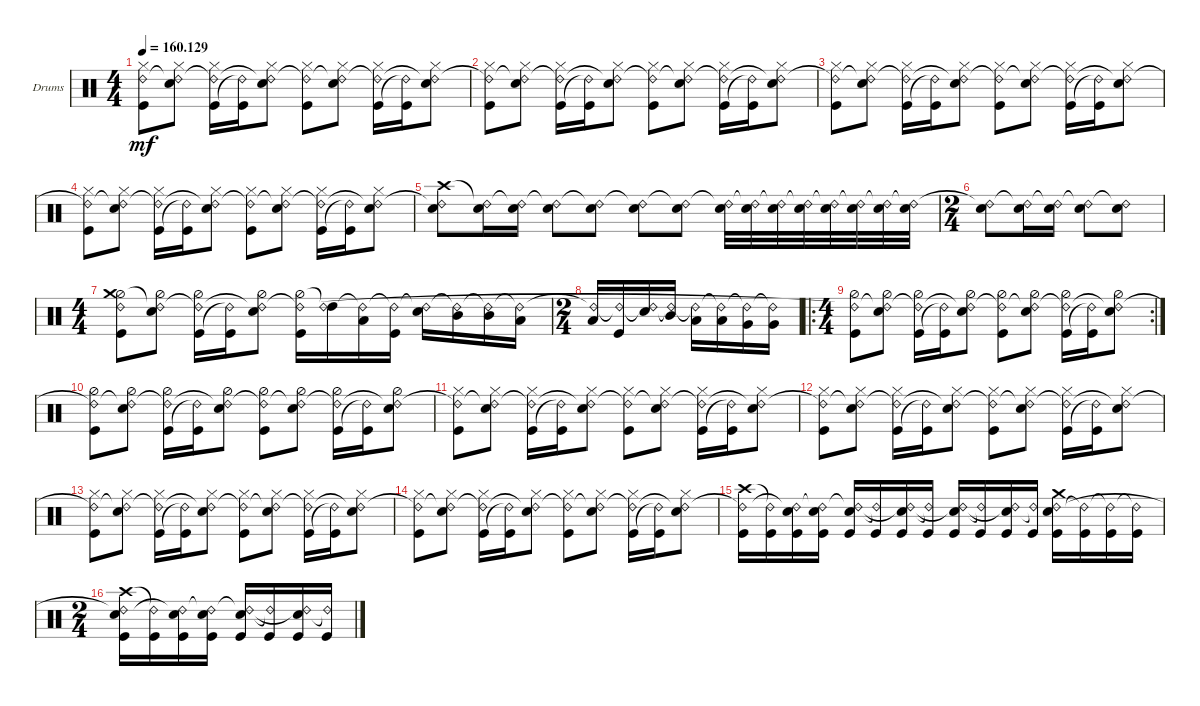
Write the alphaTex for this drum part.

\defaultSystemsLayout 4
\bracketExtendMode groupsimilarinstruments
\firstSystemTrackNameOrientation horizontal
\otherSystemsTrackNameOrientation horizontal
\track ("Drumkit" "Drums") {instrument percussion}
\staff {score}
\articulation defaults
\ts (4 4)
\tempo
160.129
\accidentals auto
\clef neutral
\ottava regular
\simile none
\ks c
("Kick (hit)" "Hi-Hat (closed)" "Ride (bell) 2"{t}).8{dy mf} ("Hi-Hat (closed)" "Snare (hit) 2" "Ride (bell) 2"{t}).8 ("Hi-Hat (closed)" "Kick (hit)" "Ride (bell) 2"{t}).16 ("Kick (hit)" "Ride (bell) 2"{t}).16 ("Hi-Hat (closed)" "Snare (hit) 2" "Ride (bell) 2"{t}).8 ("Kick (hit)" "Hi-Hat (closed)" "Ride (bell) 2"{t}).8 ("Hi-Hat (closed)" "Snare (hit) 2" "Ride (bell) 2"{t}).8 ("Hi-Hat (closed)" "Kick (hit)" "Ride (bell) 2"{t}).16 ("Kick (hit)" "Ride (bell) 2"{t}).16 ("Hi-Hat (closed)" "Snare (hit) 2" "Ride (bell) 2"{t}).8 |
("Kick (hit)" "Hi-Hat (closed)" "Ride (bell) 2"{t}).8 ("Hi-Hat (closed)" "Snare (hit) 2" "Ride (bell) 2"{t}).8 ("Hi-Hat (closed)" "Kick (hit)" "Ride (bell) 2"{t}).16 ("Kick (hit)" "Ride (bell) 2"{t}).16 ("Hi-Hat (closed)" "Snare (hit) 2" "Ride (bell) 2"{t}).8 ("Kick (hit)" "Hi-Hat (closed)" "Ride (bell) 2"{t}).8 ("Hi-Hat (closed)" "Snare (hit) 2" "Ride (bell) 2"{t}).8 ("Hi-Hat (closed)" "Kick (hit)" "Ride (bell) 2"{t}).16 ("Kick (hit)" "Ride (bell) 2"{t}).16 ("Hi-Hat (closed)" "Snare (hit) 2" "Ride (bell) 2"{t}).8 |
("Kick (hit)" "Hi-Hat (closed)" "Ride (bell) 2"{t}).8 ("Hi-Hat (closed)" "Snare (hit) 2" "Ride (bell) 2"{t}).8 ("Hi-Hat (closed)" "Kick (hit)" "Ride (bell) 2"{t}).16 ("Kick (hit)" "Ride (bell) 2"{t}).16 ("Hi-Hat (closed)" "Snare (hit) 2" "Ride (bell) 2"{t}).8 ("Kick (hit)" "Hi-Hat (closed)" "Ride (bell) 2"{t}).8 ("Hi-Hat (closed)" "Snare (hit) 2" "Ride (bell) 2"{t}).8 ("Hi-Hat (closed)" "Kick (hit)" "Ride (bell) 2"{t}).16 ("Kick (hit)" "Ride (bell) 2"{t}).16 ("Hi-Hat (closed)" "Snare (hit) 2" "Ride (bell) 2"{t}).8 |
("Kick (hit)" "Hi-Hat (closed)" "Ride (bell) 2"{t}).8 ("Hi-Hat (closed)" "Snare (hit) 2" "Ride (bell) 2"{t}).8 ("Hi-Hat (closed)" "Kick (hit)" "Ride (bell) 2"{t}).16 ("Kick (hit)" "Ride (bell) 2"{t}).16 ("Hi-Hat (closed)" "Snare (hit) 2" "Ride (bell) 2"{t}).8 ("Kick (hit)" "Hi-Hat (closed)" "Ride (bell) 2"{t}).8 ("Hi-Hat (closed)" "Snare (hit) 2" "Ride (bell) 2"{t}).8 ("Hi-Hat (closed)" "Kick (hit)" "Ride (bell) 2"{t}).16 ("Kick (hit)" "Ride (bell) 2"{t}).16 ("Hi-Hat (closed)" "Snare (hit) 2" "Ride (bell) 2"{t}).8 |
("Snare (hit) 2" "Crash high (hit)" "Ride (bell) 2"{t}).8 ("Snare (hit) 2" "Ride (bell) 2"{t}).16 ("Snare (hit) 2" "Ride (bell) 2"{t}).16 ("Snare (hit) 2" "Ride (bell) 2"{t}).8 ("Snare (hit) 2" "Ride (bell) 2"{t}).8 ("Snare (hit) 2" "Ride (bell) 2"{t}).8 ("Snare (hit) 2" "Ride (bell) 2"{t}).8 ("Snare (hit) 2" "Ride (bell) 2"{t}).32 ("Snare (hit) 2" "Ride (bell) 2"{t}).32 ("Snare (hit) 2" "Ride (bell) 2"{t}).32 ("Snare (hit) 2" "Ride (bell) 2"{t}).32 ("Snare (hit) 2" "Ride (bell) 2"{t}).32 ("Snare (hit) 2" "Ride (bell) 2"{t}).32 ("Snare (hit) 2" "Ride (bell) 2"{t}).32 ("Snare (hit) 2" "Ride (bell) 2"{t}).32 |
\ts (2 4)
("Snare (hit) 2" "Ride (bell) 2"{t}).8 ("Snare (hit) 2" "Ride (bell) 2"{t}).16 ("Snare (hit) 2" "Ride (bell) 2"{t}).16 ("Snare (hit) 2" "Ride (bell) 2"{t}).8 ("Snare (hit) 2" "Ride (bell) 2"{t}).8 |
\ts (4 4)
("Kick (hit)" "Hi-Hat (half)" "Crash medium (hit)" "Ride (bell) 2").8 ("Hi-Hat (half)" "Snare (hit) 2" "Ride (bell) 2"{t}).8 ("Hi-Hat (half)" "Kick (hit)" "Ride (bell) 2"{t}).16 ("Kick (hit)" "Ride (bell) 2"{t}).16 ("Hi-Hat (half)" "Snare (hit) 2" "Ride (bell) 2"{t}).8 ("Kick (hit)" "Hi-Hat (half)" "Ride (bell) 2"{t}).16 ("High Tom (hit)" "Ride (bell) 2"{t}).16 ("Low Tom (hit)" "Ride (bell) 2"{t}).16 ("Kick (hit)" "Ride (bell) 2"{t}).16 ("Snare (hit) 2" "Ride (bell) 2"{t}).16 ("Mid Tom (hit)" "Ride (bell) 2"{t}).16 ("Mid Tom (hit)" "Ride (bell) 2"{t}).16 ("Low Tom (hit)" "Ride (bell) 2"{t}).16 |
\ts (2 4)
("Low Tom (hit)" "Ride (bell) 2"{t}).16 ("Kick (hit)" "Ride (bell) 2"{t}).16 ("Snare (hit) 2" "Ride (bell) 2"{t}).16 ("Mid Tom (hit)" "Ride (bell) 2"{t}).16 ("Low Tom (hit)" "Ride (bell) 2"{t}).16 ("Low Tom (hit)" "Ride (bell) 2"{t}).16 ("Very Low Tom (hit)" "Ride (bell) 2"{t}).16 ("Very Low Tom (hit)" "Ride (bell) 2"{t}).16 |
\ro
\rc 2
\ts (4 4)
("Kick (hit)" "Hi-Hat (half)" "Ride (bell) 2"{t}).8 ("Hi-Hat (half)" "Snare (hit) 2" "Ride (bell) 2"{t}).8 ("Hi-Hat (half)" "Kick (hit)" "Ride (bell) 2"{t}).16 ("Kick (hit)" "Ride (bell) 2"{t}).16 ("Hi-Hat (half)" "Snare (hit) 2" "Ride (bell) 2"{t}).8 ("Kick (hit)" "Hi-Hat (half)" "Ride (bell) 2"{t}).8 ("Hi-Hat (half)" "Snare (hit) 2" "Ride (bell) 2"{t}).8 ("Hi-Hat (half)" "Kick (hit)" "Ride (bell) 2"{t}).16 ("Kick (hit)" "Ride (bell) 2"{t}).16 ("Hi-Hat (half)" "Snare (hit) 2" "Ride (bell) 2"{t}).8 |
("Kick (hit)" "Hi-Hat (half)" "Ride (bell) 2"{t}).8 ("Hi-Hat (half)" "Snare (hit) 2" "Ride (bell) 2"{t}).8 ("Hi-Hat (half)" "Kick (hit)" "Ride (bell) 2"{t}).16 ("Kick (hit)" "Ride (bell) 2"{t}).16 ("Hi-Hat (half)" "Snare (hit) 2" "Ride (bell) 2"{t}).8 ("Kick (hit)" "Hi-Hat (half)" "Ride (bell) 2"{t}).8 ("Hi-Hat (half)" "Snare (hit) 2" "Ride (bell) 2"{t}).8 ("Hi-Hat (half)" "Kick (hit)" "Ride (bell) 2"{t}).16 ("Kick (hit)" "Ride (bell) 2"{t}).16 ("Hi-Hat (half)" "Snare (hit) 2" "Ride (bell) 2"{t}).8 |
("Kick (hit)" "Hi-Hat (closed)" "Ride (bell) 2"{t}).8 ("Hi-Hat (closed)" "Snare (hit) 2" "Ride (bell) 2"{t}).8 ("Hi-Hat (closed)" "Kick (hit)" "Ride (bell) 2"{t}).16 ("Kick (hit)" "Ride (bell) 2"{t}).16 ("Hi-Hat (closed)" "Snare (hit) 2" "Ride (bell) 2"{t}).8 ("Kick (hit)" "Hi-Hat (closed)" "Ride (bell) 2"{t}).8 ("Hi-Hat (closed)" "Snare (hit) 2" "Ride (bell) 2"{t}).8 ("Hi-Hat (closed)" "Kick (hit)" "Ride (bell) 2"{t}).16 ("Kick (hit)" "Ride (bell) 2"{t}).16 ("Hi-Hat (closed)" "Snare (hit) 2" "Ride (bell) 2"{t}).8 |
("Kick (hit)" "Hi-Hat (closed)" "Ride (bell) 2"{t}).8 ("Hi-Hat (closed)" "Snare (hit) 2" "Ride (bell) 2"{t}).8 ("Hi-Hat (closed)" "Kick (hit)" "Ride (bell) 2"{t}).16 ("Kick (hit)" "Ride (bell) 2"{t}).16 ("Hi-Hat (closed)" "Snare (hit) 2" "Ride (bell) 2"{t}).8 ("Kick (hit)" "Hi-Hat (closed)" "Ride (bell) 2"{t}).8 ("Hi-Hat (closed)" "Snare (hit) 2" "Ride (bell) 2"{t}).8 ("Hi-Hat (closed)" "Kick (hit)" "Ride (bell) 2"{t}).16 ("Kick (hit)" "Ride (bell) 2"{t}).16 ("Hi-Hat (closed)" "Snare (hit) 2" "Ride (bell) 2"{t}).8 |
("Kick (hit)" "Hi-Hat (closed)" "Ride (bell) 2"{t}).8 ("Hi-Hat (closed)" "Snare (hit) 2" "Ride (bell) 2"{t}).8 ("Hi-Hat (closed)" "Kick (hit)" "Ride (bell) 2"{t}).16 ("Kick (hit)" "Ride (bell) 2"{t}).16 ("Hi-Hat (closed)" "Snare (hit) 2" "Ride (bell) 2"{t}).8 ("Kick (hit)" "Hi-Hat (closed)" "Ride (bell) 2"{t}).8 ("Hi-Hat (closed)" "Snare (hit) 2" "Ride (bell) 2"{t}).8 ("Hi-Hat (closed)" "Kick (hit)" "Ride (bell) 2"{t}).16 ("Kick (hit)" "Ride (bell) 2"{t}).16 ("Hi-Hat (closed)" "Snare (hit) 2" "Ride (bell) 2"{t}).8 |
("Kick (hit)" "Hi-Hat (closed)" "Ride (bell) 2"{t}).8 ("Hi-Hat (closed)" "Snare (hit) 2" "Ride (bell) 2"{t}).8 ("Hi-Hat (closed)" "Kick (hit)" "Ride (bell) 2"{t}).16 ("Kick (hit)" "Ride (bell) 2"{t}).16 ("Hi-Hat (closed)" "Snare (hit) 2" "Ride (bell) 2"{t}).8 ("Kick (hit)" "Hi-Hat (closed)" "Ride (bell) 2"{t}).8 ("Hi-Hat (closed)" "Snare (hit) 2" "Ride (bell) 2"{t}).8 ("Hi-Hat (closed)" "Kick (hit)" "Ride (bell) 2"{t}).16 ("Kick (hit)" "Ride (bell) 2"{t}).16 ("Hi-Hat (closed)" "Snare (hit) 2" "Ride (bell) 2"{t}).8 |
("Kick (hit)" "Crash high (hit)" "Ride (bell) 2"{t}).16 ("Kick (hit)" "Ride (bell) 2"{t}).16 ("Kick (hit)" "Snare (hit) 2" "Ride (bell) 2"{t}).16 ("Kick (hit)" "Snare (hit) 2" "Ride (bell) 2"{t}).16 ("Kick (hit)" "Snare (hit) 2" "Ride (bell) 2"{t}).16 ("Kick (hit)" "Ride (bell) 2"{t}).16 ("Kick (hit)" "Snare (hit) 2" "Ride (bell) 2"{t}).16 ("Kick (hit)" "Ride (bell) 2"{t}).16 ("Kick (hit)" "Snare (hit) 2" "Ride (bell) 2"{t}).16 ("Kick (hit)" "Ride (bell) 2"{t}).16 ("Kick (hit)" "Snare (hit) 2" "Ride (bell) 2"{t}).16 ("Kick (hit)" "Ride (bell) 2"{t}).16 ("Kick (hit)" "Snare (hit) 2" "Crash medium (hit)" "Ride (bell) 2").16 ("Kick (hit)" "Ride (bell) 2"{t}).16 ("Kick (hit)" "Ride (bell) 2"{t}).16 ("Kick (hit)" "Ride (bell) 2"{t}).16 |
\ts (2 4)
("Kick (hit)" "Crash high (hit)" "Snare (hit) 2" "Ride (bell) 2"{t}).16 ("Kick (hit)" "Ride (bell) 2"{t}).16 ("Kick (hit)" "Snare (hit) 2" "Ride (bell) 2"{t}).16 ("Kick (hit)" "Snare (hit) 2" "Ride (bell) 2"{t}).16 ("Kick (hit)" "Snare (hit) 2" "Ride (bell) 2"{t}).16 ("Kick (hit)" "Ride (bell) 2"{t}).16 ("Kick (hit)" "Snare (hit) 2" "Ride (bell) 2"{t}).16 ("Kick (hit)" "Ride (bell) 2"{t}).16
